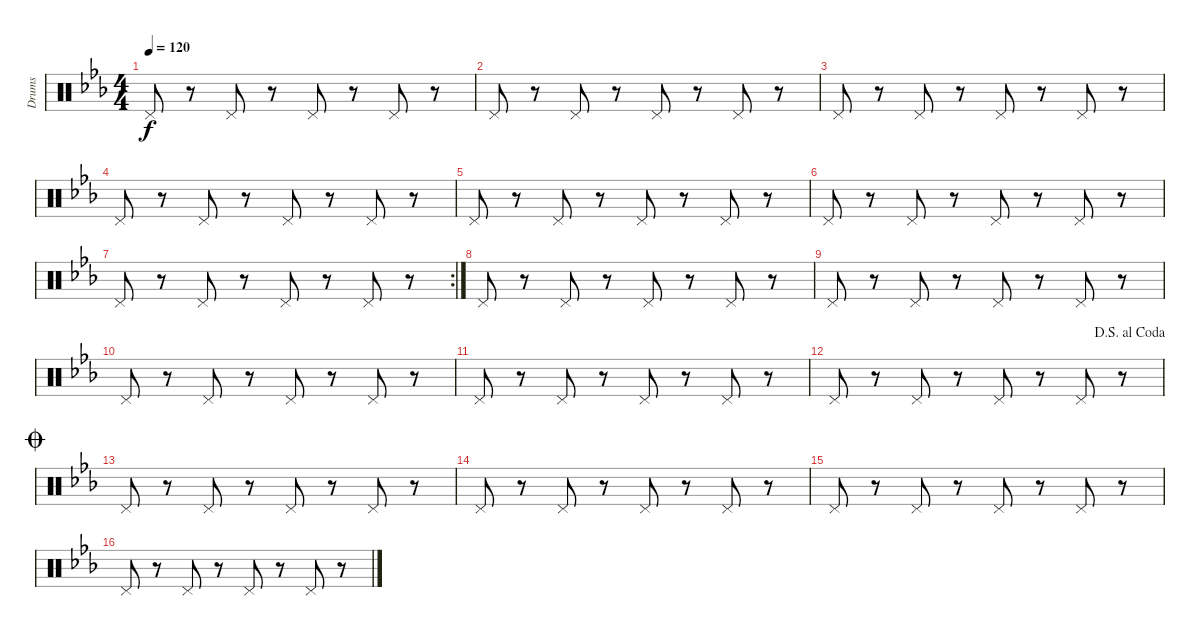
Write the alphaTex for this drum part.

\track ("Drums" "Drums") {instrument percussion}
\staff {score}
\articulation defaults
\ts (4 4)
\tempo 120
\clef neutral
\ks cminor "Pedal Hi-Hat (hit)".8{dy f}
r.8 "Pedal Hi-Hat (hit)".8 r.8 "Pedal Hi-Hat (hit)".8 r.8 "Pedal Hi-Hat (hit)".8 r.8 |
"Pedal Hi-Hat (hit)".8 r.8 "Pedal Hi-Hat (hit)".8 r.8 "Pedal Hi-Hat (hit)".8 r.8 "Pedal Hi-Hat (hit)".8 r.8 |
"Pedal Hi-Hat (hit)".8 r.8 "Pedal Hi-Hat (hit)".8 r.8 "Pedal Hi-Hat (hit)".8 r.8 "Pedal Hi-Hat (hit)".8 r.8 |
"Pedal Hi-Hat (hit)".8 r.8 "Pedal Hi-Hat (hit)".8 r.8 "Pedal Hi-Hat (hit)".8 r.8 "Pedal Hi-Hat (hit)".8 r.8 |
"Pedal Hi-Hat (hit)".8 r.8 "Pedal Hi-Hat (hit)".8 r.8 "Pedal Hi-Hat (hit)".8 r.8 "Pedal Hi-Hat (hit)".8 r.8 |
"Pedal Hi-Hat (hit)".8 r.8 "Pedal Hi-Hat (hit)".8 r.8 "Pedal Hi-Hat (hit)".8 r.8 "Pedal Hi-Hat (hit)".8 r.8 |
\rc 2 "Pedal Hi-Hat (hit)".8
r.8 "Pedal Hi-Hat (hit)".8 r.8 "Pedal Hi-Hat (hit)".8 r.8 "Pedal Hi-Hat (hit)".8 r.8 |
"Pedal Hi-Hat (hit)".8 r.8 "Pedal Hi-Hat (hit)".8 r.8 "Pedal Hi-Hat (hit)".8 r.8 "Pedal Hi-Hat (hit)".8 r.8 |
"Pedal Hi-Hat (hit)".8 r.8 "Pedal Hi-Hat (hit)".8 r.8 "Pedal Hi-Hat (hit)".8 r.8 "Pedal Hi-Hat (hit)".8 r.8 |
"Pedal Hi-Hat (hit)".8 r.8 "Pedal Hi-Hat (hit)".8 r.8 "Pedal Hi-Hat (hit)".8 r.8 "Pedal Hi-Hat (hit)".8 r.8 |
"Pedal Hi-Hat (hit)".8 r.8 "Pedal Hi-Hat (hit)".8 r.8 "Pedal Hi-Hat (hit)".8 r.8 "Pedal Hi-Hat (hit)".8 r.8 |
\jump dalsegnoalcoda "Pedal Hi-Hat (hit)".8
r.8 "Pedal Hi-Hat (hit)".8 r.8 "Pedal Hi-Hat (hit)".8 r.8 "Pedal Hi-Hat (hit)".8 r.8 |
\jump coda "Pedal Hi-Hat (hit)".8
r.8 "Pedal Hi-Hat (hit)".8 r.8 "Pedal Hi-Hat (hit)".8 r.8 "Pedal Hi-Hat (hit)".8 r.8 |
"Pedal Hi-Hat (hit)".8 r.8 "Pedal Hi-Hat (hit)".8 r.8 "Pedal Hi-Hat (hit)".8 r.8 "Pedal Hi-Hat (hit)".8 r.8 |
"Pedal Hi-Hat (hit)".8 r.8 "Pedal Hi-Hat (hit)".8 r.8 "Pedal Hi-Hat (hit)".8 r.8 "Pedal Hi-Hat (hit)".8 r.8 |
"Pedal Hi-Hat (hit)".8 r.8 "Pedal Hi-Hat (hit)".8 r.8 "Pedal Hi-Hat (hit)".8 r.8 "Pedal Hi-Hat (hit)".8 r.8
